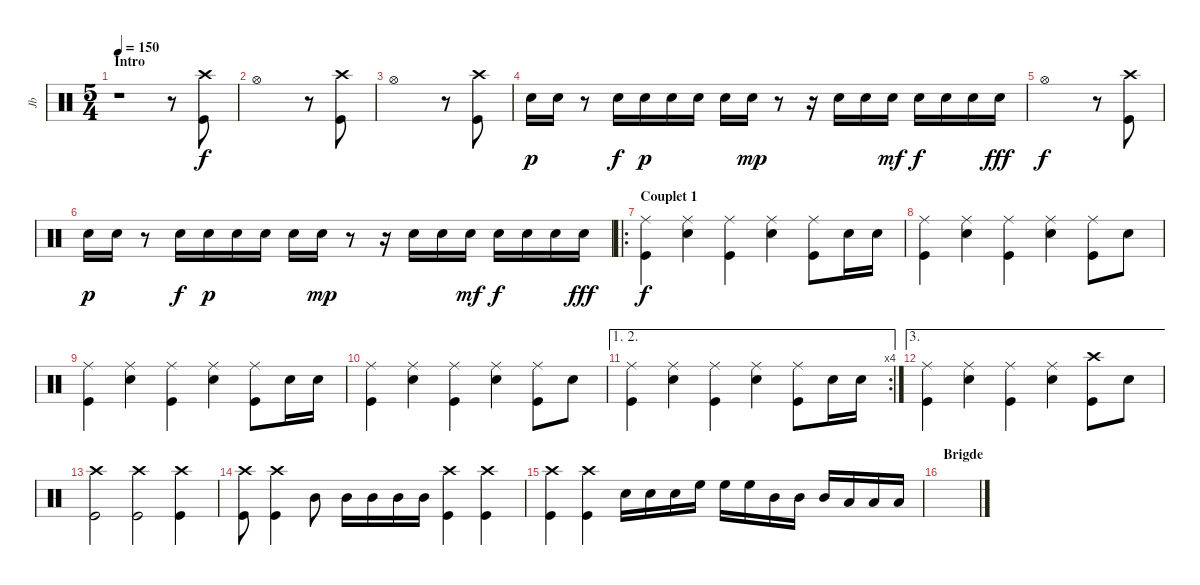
\track ("Jb" "Jb") {instrument percussion}
\staff {score}
\articulation defaults
\ts (5 4)
\section ("" "Intro")
\tempo 150
\clef neutral
\ks c
r.1{dy f} r.8 ("Crash high (hit)" "Kick (hit)").8 |
"Hi-Hat (open)".1 r.8 ("Crash high (hit)" "Kick (hit)").8 |
"Hi-Hat (open)".1 r.8 ("Crash high (hit)" "Kick (hit)").8 |
"Electric Snare (hit)".16{dy p} "Electric Snare (hit)".16 r.8 "Electric Snare (hit)".16{dy f} "Electric Snare (hit)".16{dy p} "Electric Snare (hit)".16 "Electric Snare (hit)".16 "Electric Snare (hit)".16 "Electric Snare (hit)".16{dy mp} r.8 r.16 "Electric Snare (hit)".16 "Electric Snare (hit)".16 "Electric Snare (hit)".16{dy mf} "Electric Snare (hit)".16{dy f} "Electric Snare (hit)".16 "Electric Snare (hit)".16 "Electric Snare (hit)".16{dy fff} |
"Hi-Hat (open)".1{dy f} r.8 ("Crash high (hit)" "Kick (hit)").8 |
"Electric Snare (hit)".16{dy p} "Electric Snare (hit)".16 r.8 "Electric Snare (hit)".16{dy f} "Electric Snare (hit)".16{dy p} "Electric Snare (hit)".16 "Electric Snare (hit)".16 "Electric Snare (hit)".16 "Electric Snare (hit)".16{dy mp} r.8 r.16 "Electric Snare (hit)".16 "Electric Snare (hit)".16 "Electric Snare (hit)".16{dy mf} "Electric Snare (hit)".16{dy f} "Electric Snare (hit)".16 "Electric Snare (hit)".16 "Electric Snare (hit)".16{dy fff} |
\ro
\section ("" "Couplet 1")
("Ride (middle)" "Kick (hit)").4{dy f} ("Ride (middle)" "Electric Snare (hit)").4 ("Ride (middle)" "Kick (hit)").4 ("Ride (middle)" "Electric Snare (hit)").4 ("Ride (middle)" "Kick (hit)").8 "Electric Snare (hit)".16 "Electric Snare (hit)".16 |
("Ride (middle)" "Kick (hit)").4 ("Ride (middle)" "Electric Snare (hit)").4 ("Ride (middle)" "Kick (hit)").4 ("Ride (middle)" "Electric Snare (hit)").4 ("Ride (middle)" "Kick (hit)").8 "Electric Snare (hit)".8 |
("Ride (middle)" "Kick (hit)").4 ("Ride (middle)" "Electric Snare (hit)").4 ("Ride (middle)" "Kick (hit)").4 ("Ride (middle)" "Electric Snare (hit)").4 ("Ride (middle)" "Kick (hit)").8 "Electric Snare (hit)".16 "Electric Snare (hit)".16 |
("Ride (middle)" "Kick (hit)").4 ("Ride (middle)" "Electric Snare (hit)").4 ("Ride (middle)" "Kick (hit)").4 ("Ride (middle)" "Electric Snare (hit)").4 ("Ride (middle)" "Kick (hit)").8 "Electric Snare (hit)".8 |
\ae (1 2)
\rc 4
("Ride (middle)" "Kick (hit)").4 ("Ride (middle)" "Electric Snare (hit)").4 ("Ride (middle)" "Kick (hit)").4 ("Ride (middle)" "Electric Snare (hit)").4 ("Ride (middle)" "Kick (hit)").8 "Electric Snare (hit)".16 "Electric Snare (hit)".16 |
\ae 3
("Ride (middle)" "Kick (hit)").4 ("Ride (middle)" "Electric Snare (hit)").4 ("Ride (middle)" "Kick (hit)").4 ("Ride (middle)" "Electric Snare (hit)").4 ("Crash high (hit)" "Kick (hit)").8 "Electric Snare (hit)".8 |
("Crash high (hit)" "Kick (hit)").2 ("Crash high (hit)" "Kick (hit)").2 ("Crash high (hit)" "Kick (hit)").4 |
("Crash high (hit)" "Kick (hit)").8 ("Crash high (hit)" "Kick (hit)").4 "Mid Tom (hit)".8 "Mid Tom (hit)".16 "Mid Tom (hit)".16 "Mid Tom (hit)".16 "Mid Tom (hit)".16 ("Crash high (hit)" "Kick (hit)").4 ("Crash high (hit)" "Kick (hit)").4 |
("Crash high (hit)" "Kick (hit)").4 ("Crash high (hit)" "Kick (hit)").4 "Snare (hit) 2".16 "Snare (hit) 2".16 "Snare (hit) 2".16 "High Floor Tom (hit)".16 "High Floor Tom (hit)".16 "High Floor Tom (hit)".16 "Mid Tom (hit)".16 "Mid Tom (hit)".16 "Mid Tom (hit)".16 "Low Floor Tom (hit)".16 "Low Floor Tom (hit)".16 "Low Floor Tom (hit)".16 |
\section ("" "Brigde")
